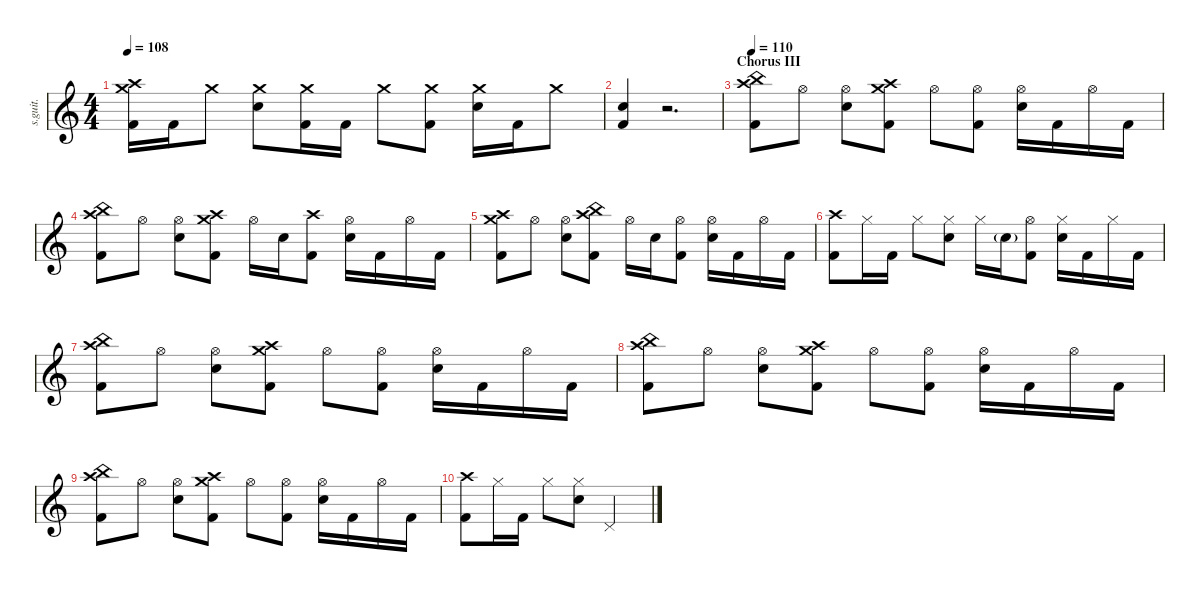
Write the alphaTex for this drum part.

\defaultSystemsLayout 4
\hideDynamics
\bracketExtendMode nobrackets
\track ("John Otto" "s.guit.") {instrument percussion}
\staff {score}
\articulation defaults
\ts (4 4)
\tempo 108
\clef g2
\ks c
("Kick (hit) 2" "Crash medium (hit)" "Crash high (hit)").16{lyrics (0 "") lyrics (1 "") lyrics (2 "") lyrics (3 "") lyrics (4 "") dy ff} "Kick (hit) 2".16{lyrics (0 "") lyrics (1 "") lyrics (2 "") lyrics (3 "") lyrics (4 "")} "Crash medium (hit)".8{lyrics (0 "") lyrics (1 "") lyrics (2 "") lyrics (3 "") lyrics (4 "")} ("Snare (hit) 2" "Crash medium (hit)").8{lyrics (0 "") lyrics (1 "") lyrics (2 "") lyrics (3 "") lyrics (4 "")} ("Kick (hit) 2" "Crash medium (hit)").16{lyrics (0 "") lyrics (1 "") lyrics (2 "") lyrics (3 "") lyrics (4 "")} "Kick (hit) 2".16{lyrics (0 "") lyrics (1 "") lyrics (2 "") lyrics (3 "") lyrics (4 "")} "Crash medium (hit)".8{lyrics (0 "") lyrics (1 "") lyrics (2 "") lyrics (3 "") lyrics (4 "")} ("Kick (hit) 2" "Crash medium (hit)").8{lyrics (0 "") lyrics (1 "") lyrics (2 "") lyrics (3 "") lyrics (4 "")} ("Snare (hit) 2" "Crash medium (hit)").16{lyrics (0 "") lyrics (1 "") lyrics (2 "") lyrics (3 "") lyrics (4 "")} "Kick (hit) 2".16{lyrics (0 "") lyrics (1 "") lyrics (2 "") lyrics (3 "") lyrics (4 "")} "Crash medium (hit)".8{lyrics (0 "") lyrics (1 "") lyrics (2 "") lyrics (3 "") lyrics (4 "")} |
("Kick (hit) 2" "Snare (hit) 2").4{lyrics (0 "") lyrics (1 "") lyrics (2 "") lyrics (3 "") lyrics (4 "")} r.2{d} |
\section ("" "Chorus III")
\tempo 110
("Crash high (hit)" "Kick (hit) 2" "China (hit)").8{lyrics (0 "") lyrics (1 "") lyrics (2 "") lyrics (3 "") lyrics (4 "")} "Hi-Hat (open)".8{lyrics (0 "") lyrics (1 "") lyrics (2 "") lyrics (3 "") lyrics (4 "")} ("Hi-Hat (open)" "Snare (hit) 2").8{lyrics (0 "") lyrics (1 "") lyrics (2 "") lyrics (3 "") lyrics (4 "")} ("Crash high (hit)" "Kick (hit) 2" "Crash medium (hit)").8{lyrics (0 "") lyrics (1 "") lyrics (2 "") lyrics (3 "") lyrics (4 "")} "Hi-Hat (open)".8{lyrics (0 "") lyrics (1 "") lyrics (2 "") lyrics (3 "") lyrics (4 "")} ("Hi-Hat (open)" "Kick (hit) 2").8{lyrics (0 "") lyrics (1 "") lyrics (2 "") lyrics (3 "") lyrics (4 "")} ("Hi-Hat (open)" "Snare (hit) 2").16{lyrics (0 "") lyrics (1 "") lyrics (2 "") lyrics (3 "") lyrics (4 "")} "Kick (hit) 2".16{lyrics (0 "") lyrics (1 "") lyrics (2 "") lyrics (3 "") lyrics (4 "")} "Hi-Hat (open)".16{lyrics (0 "") lyrics (1 "") lyrics (2 "") lyrics (3 "") lyrics (4 "")} "Kick (hit) 2".16{lyrics (0 "") lyrics (1 "") lyrics (2 "") lyrics (3 "") lyrics (4 "")} |
("Crash high (hit)" "Kick (hit) 2" "China (hit)").8{lyrics (0 "") lyrics (1 "") lyrics (2 "") lyrics (3 "") lyrics (4 "")} "Hi-Hat (open)".8{lyrics (0 "") lyrics (1 "") lyrics (2 "") lyrics (3 "") lyrics (4 "")} ("Hi-Hat (open)" "Snare (hit) 2").8{lyrics (0 "") lyrics (1 "") lyrics (2 "") lyrics (3 "") lyrics (4 "")} ("Crash high (hit)" "Kick (hit) 2" "Crash medium (hit)").8{lyrics (0 "") lyrics (1 "") lyrics (2 "") lyrics (3 "") lyrics (4 "")} "Hi-Hat (open)".16{lyrics (0 "") lyrics (1 "") lyrics (2 "") lyrics (3 "") lyrics (4 "")} "Snare (hit) 2".16{lyrics (0 "") lyrics (1 "") lyrics (2 "") lyrics (3 "") lyrics (4 "")} ("Kick (hit) 2" "Crash high (hit)").8{lyrics (0 "") lyrics (1 "") lyrics (2 "") lyrics (3 "") lyrics (4 "")} ("Hi-Hat (open)" "Snare (hit) 2").16{lyrics (0 "") lyrics (1 "") lyrics (2 "") lyrics (3 "") lyrics (4 "")} "Kick (hit) 2".16{lyrics (0 "") lyrics (1 "") lyrics (2 "") lyrics (3 "") lyrics (4 "")} "Hi-Hat (open)".16{lyrics (0 "") lyrics (1 "") lyrics (2 "") lyrics (3 "") lyrics (4 "")} "Kick (hit) 2".16{lyrics (0 "") lyrics (1 "") lyrics (2 "") lyrics (3 "") lyrics (4 "")} |
("Crash high (hit)" "Kick (hit) 2" "Crash medium (hit)").8{lyrics (0 "") lyrics (1 "") lyrics (2 "") lyrics (3 "") lyrics (4 "")} "Hi-Hat (open)".8{lyrics (0 "") lyrics (1 "") lyrics (2 "") lyrics (3 "") lyrics (4 "")} ("Hi-Hat (open)" "Snare (hit) 2").8{lyrics (0 "") lyrics (1 "") lyrics (2 "") lyrics (3 "") lyrics (4 "")} ("Crash high (hit)" "Kick (hit) 2" "China (hit)").8{lyrics (0 "") lyrics (1 "") lyrics (2 "") lyrics (3 "") lyrics (4 "")} "Hi-Hat (open)".16{lyrics (0 "") lyrics (1 "") lyrics (2 "") lyrics (3 "") lyrics (4 "")} "Snare (hit) 2".16{lyrics (0 "") lyrics (1 "") lyrics (2 "") lyrics (3 "") lyrics (4 "")} ("Hi-Hat (open)" "Kick (hit) 2").8{lyrics (0 "") lyrics (1 "") lyrics (2 "") lyrics (3 "") lyrics (4 "")} ("Hi-Hat (open)" "Snare (hit) 2").16{lyrics (0 "") lyrics (1 "") lyrics (2 "") lyrics (3 "") lyrics (4 "")} "Kick (hit) 2".16{lyrics (0 "") lyrics (1 "") lyrics (2 "") lyrics (3 "") lyrics (4 "")} "Hi-Hat (open)".16{lyrics (0 "") lyrics (1 "") lyrics (2 "") lyrics (3 "") lyrics (4 "")} "Kick (hit) 2".16{lyrics (0 "") lyrics (1 "") lyrics (2 "") lyrics (3 "") lyrics (4 "")} |
("Kick (hit) 2" "Crash high (hit)").8{lyrics (0 "") lyrics (1 "") lyrics (2 "") lyrics (3 "") lyrics (4 "")} "Hi-Hat (closed)".16{lyrics (0 "") lyrics (1 "") lyrics (2 "") lyrics (3 "") lyrics (4 "")} "Kick (hit) 2".16{lyrics (0 "") lyrics (1 "") lyrics (2 "") lyrics (3 "") lyrics (4 "")} "Hi-Hat (closed)".8{lyrics (0 "") lyrics (1 "") lyrics (2 "") lyrics (3 "") lyrics (4 "")} ("Hi-Hat (closed)" "Snare (hit) 2").8{lyrics (0 "") lyrics (1 "") lyrics (2 "") lyrics (3 "") lyrics (4 "")} "Hi-Hat (closed)".16{lyrics (0 "") lyrics (1 "") lyrics (2 "") lyrics (3 "") lyrics (4 "")} "Snare (hit) 2"{g}.16{lyrics (0 "") lyrics (1 "") lyrics (2 "") lyrics (3 "") lyrics (4 "")} ("Hi-Hat (open)" "Kick (hit) 2").8{lyrics (0 "") lyrics (1 "") lyrics (2 "") lyrics (3 "") lyrics (4 "")} ("Hi-Hat (closed)" "Snare (hit) 2").16{lyrics (0 "") lyrics (1 "") lyrics (2 "") lyrics (3 "") lyrics (4 "")} "Kick (hit) 2".16{lyrics (0 "") lyrics (1 "") lyrics (2 "") lyrics (3 "") lyrics (4 "")} "Hi-Hat (closed)".16{lyrics (0 "") lyrics (1 "") lyrics (2 "") lyrics (3 "") lyrics (4 "")} "Kick (hit) 2".16{lyrics (0 "") lyrics (1 "") lyrics (2 "") lyrics (3 "") lyrics (4 "")} |
("Crash high (hit)" "Kick (hit) 2" "China (hit)").8{lyrics (0 "") lyrics (1 "") lyrics (2 "") lyrics (3 "") lyrics (4 "")} "Hi-Hat (open)".8{lyrics (0 "") lyrics (1 "") lyrics (2 "") lyrics (3 "") lyrics (4 "")} ("Hi-Hat (open)" "Snare (hit) 2").8{lyrics (0 "") lyrics (1 "") lyrics (2 "") lyrics (3 "") lyrics (4 "")} ("Crash high (hit)" "Kick (hit) 2" "Crash medium (hit)").8{lyrics (0 "") lyrics (1 "") lyrics (2 "") lyrics (3 "") lyrics (4 "")} "Hi-Hat (open)".8{lyrics (0 "") lyrics (1 "") lyrics (2 "") lyrics (3 "") lyrics (4 "")} ("Hi-Hat (open)" "Kick (hit) 2").8{lyrics (0 "") lyrics (1 "") lyrics (2 "") lyrics (3 "") lyrics (4 "")} ("Hi-Hat (open)" "Snare (hit) 2").16{lyrics (0 "") lyrics (1 "") lyrics (2 "") lyrics (3 "") lyrics (4 "")} "Kick (hit) 2".16{lyrics (0 "") lyrics (1 "") lyrics (2 "") lyrics (3 "") lyrics (4 "")} "Hi-Hat (open)".16{lyrics (0 "") lyrics (1 "") lyrics (2 "") lyrics (3 "") lyrics (4 "")} "Kick (hit) 2".16{lyrics (0 "") lyrics (1 "") lyrics (2 "") lyrics (3 "") lyrics (4 "")} |
("Crash high (hit)" "Kick (hit) 2" "China (hit)").8{lyrics (0 "") lyrics (1 "") lyrics (2 "") lyrics (3 "") lyrics (4 "")} "Hi-Hat (open)".8{lyrics (0 "") lyrics (1 "") lyrics (2 "") lyrics (3 "") lyrics (4 "")} ("Hi-Hat (open)" "Snare (hit) 2").8{lyrics (0 "") lyrics (1 "") lyrics (2 "") lyrics (3 "") lyrics (4 "")} ("Crash high (hit)" "Kick (hit) 2" "Crash medium (hit)").8{lyrics (0 "") lyrics (1 "") lyrics (2 "") lyrics (3 "") lyrics (4 "")} "Hi-Hat (open)".8{lyrics (0 "") lyrics (1 "") lyrics (2 "") lyrics (3 "") lyrics (4 "")} ("Hi-Hat (open)" "Kick (hit) 2").8{lyrics (0 "") lyrics (1 "") lyrics (2 "") lyrics (3 "") lyrics (4 "")} ("Hi-Hat (open)" "Snare (hit) 2").16{lyrics (0 "") lyrics (1 "") lyrics (2 "") lyrics (3 "") lyrics (4 "")} "Kick (hit) 2".16{lyrics (0 "") lyrics (1 "") lyrics (2 "") lyrics (3 "") lyrics (4 "")} "Hi-Hat (open)".16{lyrics (0 "") lyrics (1 "") lyrics (2 "") lyrics (3 "") lyrics (4 "")} "Kick (hit) 2".16{lyrics (0 "") lyrics (1 "") lyrics (2 "") lyrics (3 "") lyrics (4 "")} |
("Crash high (hit)" "Kick (hit) 2" "China (hit)").8{lyrics (0 "") lyrics (1 "") lyrics (2 "") lyrics (3 "") lyrics (4 "")} "Hi-Hat (open)".8{lyrics (0 "") lyrics (1 "") lyrics (2 "") lyrics (3 "") lyrics (4 "")} ("Hi-Hat (open)" "Snare (hit) 2").8{lyrics (0 "") lyrics (1 "") lyrics (2 "") lyrics (3 "") lyrics (4 "")} ("Crash high (hit)" "Kick (hit) 2" "Crash medium (hit)").8{lyrics (0 "") lyrics (1 "") lyrics (2 "") lyrics (3 "") lyrics (4 "")} "Hi-Hat (open)".8{lyrics (0 "") lyrics (1 "") lyrics (2 "") lyrics (3 "") lyrics (4 "")} ("Hi-Hat (open)" "Kick (hit) 2").8{lyrics (0 "") lyrics (1 "") lyrics (2 "") lyrics (3 "") lyrics (4 "")} ("Hi-Hat (open)" "Snare (hit) 2").16{lyrics (0 "") lyrics (1 "") lyrics (2 "") lyrics (3 "") lyrics (4 "")} "Kick (hit) 2".16{lyrics (0 "") lyrics (1 "") lyrics (2 "") lyrics (3 "") lyrics (4 "")} "Hi-Hat (open)".16{lyrics (0 "") lyrics (1 "") lyrics (2 "") lyrics (3 "") lyrics (4 "")} "Kick (hit) 2".16{lyrics (0 "") lyrics (1 "") lyrics (2 "") lyrics (3 "") lyrics (4 "")} |
("Kick (hit) 2" "Crash high (hit)").8{lyrics (0 "") lyrics (1 "") lyrics (2 "") lyrics (3 "") lyrics (4 "")} "Hi-Hat (closed)".16{lyrics (0 "") lyrics (1 "") lyrics (2 "") lyrics (3 "") lyrics (4 "")} "Kick (hit) 2".16{lyrics (0 "") lyrics (1 "") lyrics (2 "") lyrics (3 "") lyrics (4 "")} "Hi-Hat (closed)".8{lyrics (0 "") lyrics (1 "") lyrics (2 "") lyrics (3 "") lyrics (4 "")} ("Snare (hit) 2" "Hi-Hat (closed)").8{lyrics (0 "") lyrics (1 "") lyrics (2 "") lyrics (3 "") lyrics (4 "")} "Pedal Hi-Hat (hit)".2{lyrics (0 "") lyrics (1 "") lyrics (2 "") lyrics (3 "") lyrics (4 "")}
